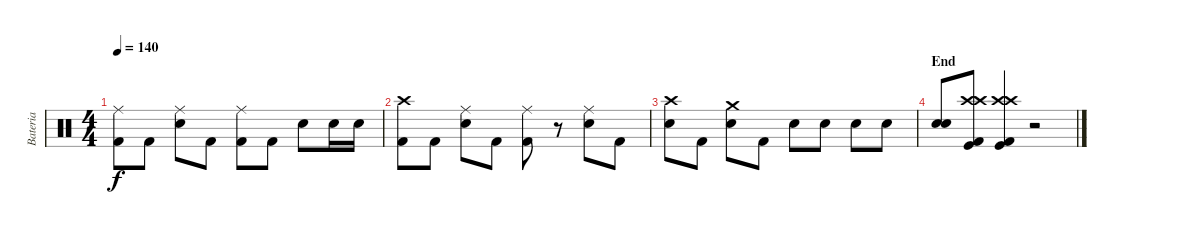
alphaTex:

\track ("Bateria" "Bateria") {instrument percussion}
\staff {score}
\articulation defaults
\ts (4 4)
\tempo 140
\clef neutral
\ks c
("Ride (middle)" "Kick (hit) 2").8{dy f} "Kick (hit) 2".8 ("Ride (middle)" "Snare (hit) 2").8 "Kick (hit) 2".8 ("Ride (middle)" "Kick (hit) 2").8 "Kick (hit) 2".8 "Snare (hit) 2".8 "Snare (hit) 2".16 "Snare (hit) 2".16 |
("Crash high (hit)" "Kick (hit) 2").8 "Kick (hit) 2".8 ("Ride (middle)" "Snare (hit) 2").8 "Kick (hit) 2".8 ("Ride (middle)" "Kick (hit) 2").8 r.8 ("Ride (middle)" "Snare (hit) 2").8 "Kick (hit) 2".8 |
("Crash high (hit)" "Snare (hit) 2").8 "Kick (hit) 2".8 ("Crash medium (hit)" "Snare (hit) 2").8 "Kick (hit) 2".8 "Snare (hit) 2".8 "Snare (hit) 2".8 "Snare (hit) 2".8 "Snare (hit) 2".8 |
\section ("" "End")
("Snare (hit) 2" "Snare (hit) 2").8 ("Crash high (hit)" "Crash high (hit)" "Kick (hit)" "Kick (hit) 2").8 ("Crash high (hit)" "Crash high (hit)" "Kick (hit)" "Kick (hit) 2").4 r.2
